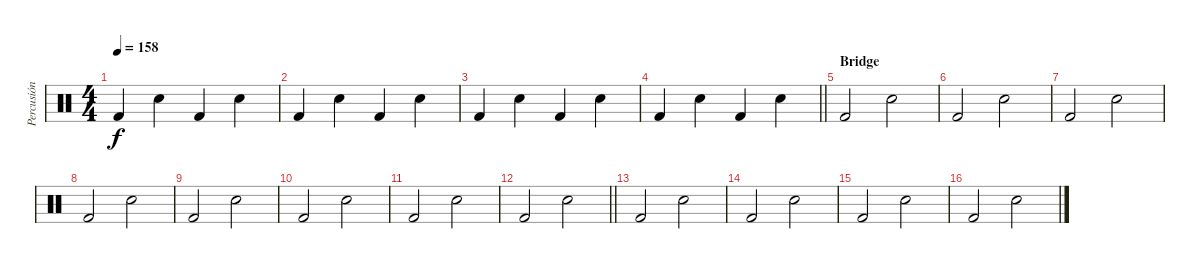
\track ("Percusión" "Percusión") {instrument percussion}
\staff {score}
\articulation defaults
\ts (4 4)
\tempo 158
\clef neutral
\ks c "Kick (hit) 2".4{dy f volume 16} "Electric Snare (hit)".4 "Kick (hit) 2".4 "Electric Snare (hit)".4
|
"Kick (hit) 2".4 "Electric Snare (hit)".4 "Kick (hit) 2".4 "Electric Snare (hit)".4 |
"Kick (hit) 2".4{volume 16} "Electric Snare (hit)".4 "Kick (hit) 2".4 "Electric Snare (hit)".4 |
\barLineRight lightlight "Kick (hit) 2".4{volume 16} "Electric Snare (hit)".4 "Kick (hit) 2".4 "Electric Snare (hit)".4
|
\section ("" "Bridge")
"Kick (hit) 2".2{volume 16} "Electric Snare (hit)".2 |
"Kick (hit) 2".2 "Electric Snare (hit)".2 |
"Kick (hit) 2".2 "Electric Snare (hit)".2 |
"Kick (hit) 2".2 "Electric Snare (hit)".2 |
"Kick (hit) 2".2 "Electric Snare (hit)".2 |
"Kick (hit) 2".2 "Electric Snare (hit)".2 |
"Kick (hit) 2".2 "Electric Snare (hit)".2 |
\barLineRight lightlight "Kick (hit) 2".2 "Electric Snare (hit)".2
|
\section ("" "")
"Kick (hit) 2".2{volume 16} "Electric Snare (hit)".2 |
"Kick (hit) 2".2 "Electric Snare (hit)".2 |
"Kick (hit) 2".2 "Electric Snare (hit)".2 |
"Kick (hit) 2".2 "Electric Snare (hit)".2
